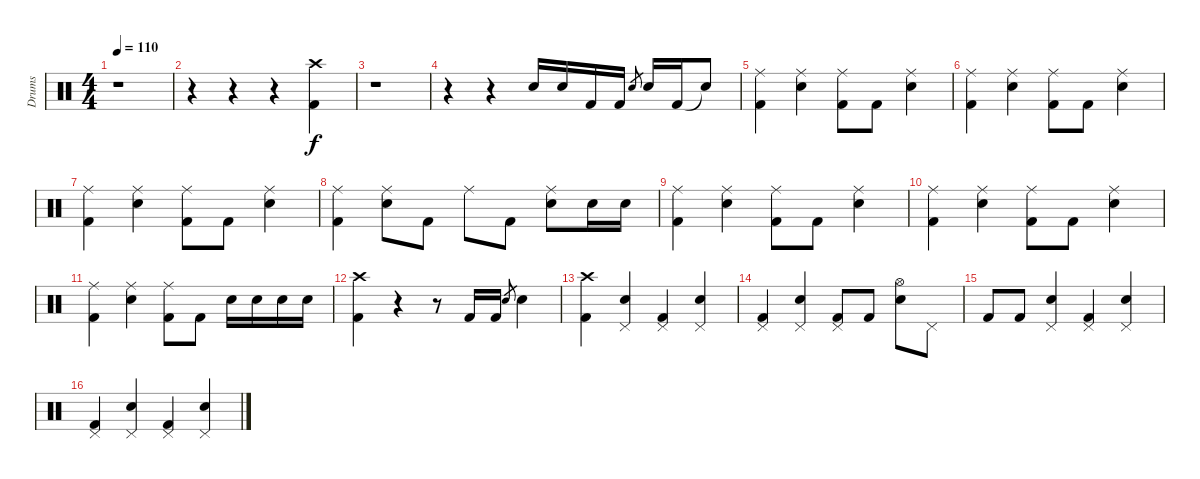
\track ("Drums" "Drums") {instrument percussion}
\staff {score}
\articulation defaults
\ts (4 4)
\tempo 110
\clef neutral
\ks c
r.1{dy f} |
r.4 r.4 r.4 ("Crash high (hit)" "Kick (hit) 2").4 |
r.1 |
r.4 r.4 "Electric Snare (hit)".16 "Electric Snare (hit)".16 "Kick (hit) 2".16 "Kick (hit) 2".16 "Electric Snare (hit)".8{gr} "Electric Snare (hit)".16 "Kick (hit) 2".16 "Snare (hit)"{t}.8 |
("Ride (middle)" "Kick (hit) 2").4 ("Ride (middle)" "Electric Snare (hit)").4 ("Ride (middle)" "Kick (hit) 2").8 "Kick (hit) 2".8 ("Ride (middle)" "Electric Snare (hit)").4 |
("Ride (middle)" "Kick (hit) 2").4 ("Ride (middle)" "Electric Snare (hit)").4 ("Ride (middle)" "Kick (hit) 2").8 "Kick (hit) 2".8 ("Ride (middle)" "Electric Snare (hit)").4 |
("Ride (middle)" "Kick (hit) 2").4 ("Ride (middle)" "Electric Snare (hit)").4 ("Ride (middle)" "Kick (hit) 2").8 "Kick (hit) 2".8 ("Ride (middle)" "Electric Snare (hit)").4 |
("Ride (middle)" "Kick (hit) 2").4 ("Ride (middle)" "Electric Snare (hit)").8 "Kick (hit) 2".8 "Ride (middle)".8 "Kick (hit) 2".8 ("Ride (middle)" "Electric Snare (hit)").8 "Electric Snare (hit)".16 "Electric Snare (hit)".16 |
("Ride (middle)" "Kick (hit) 2").4 ("Ride (middle)" "Electric Snare (hit)").4 ("Ride (middle)" "Kick (hit) 2").8 "Kick (hit) 2".8 ("Ride (middle)" "Electric Snare (hit)").4 |
("Ride (middle)" "Kick (hit) 2").4 ("Ride (middle)" "Electric Snare (hit)").4 ("Ride (middle)" "Kick (hit) 2").8 "Kick (hit) 2".8 ("Ride (middle)" "Electric Snare (hit)").4 |
("Ride (middle)" "Kick (hit) 2").4 ("Ride (middle)" "Electric Snare (hit)").4 ("Ride (middle)" "Kick (hit) 2").8 "Kick (hit) 2".8 "Electric Snare (hit)".16 "Electric Snare (hit)".16 "Electric Snare (hit)".16 "Electric Snare (hit)".16 |
("Crash high (hit)" "Kick (hit) 2").4 r.4 r.8 "Kick (hit) 2".16 "Kick (hit) 2".16 "Electric Snare (hit)".8{gr} "Electric Snare (hit)".4 |
("Crash high (hit)" "Kick (hit) 2").4 ("Pedal Hi-Hat (hit)" "Electric Snare (hit)").4 ("Pedal Hi-Hat (hit)" "Kick (hit) 2").4 ("Pedal Hi-Hat (hit)" "Electric Snare (hit)").4 |
("Pedal Hi-Hat (hit)" "Kick (hit) 2").4 ("Pedal Hi-Hat (hit)" "Electric Snare (hit)").4 ("Pedal Hi-Hat (hit)" "Kick (hit) 2").8 "Kick (hit) 2".8 ("Hi-Hat (open)" "Electric Snare (hit)").8 "Pedal Hi-Hat (hit)".8 |
"Kick (hit) 2".8 "Kick (hit) 2".8 ("Pedal Hi-Hat (hit)" "Electric Snare (hit)").4 ("Pedal Hi-Hat (hit)" "Kick (hit) 2").4 ("Pedal Hi-Hat (hit)" "Electric Snare (hit)").4 |
("Pedal Hi-Hat (hit)" "Kick (hit) 2").4 ("Pedal Hi-Hat (hit)" "Electric Snare (hit)").4 ("Pedal Hi-Hat (hit)" "Kick (hit) 2").4 ("Pedal Hi-Hat (hit)" "Electric Snare (hit)").4
